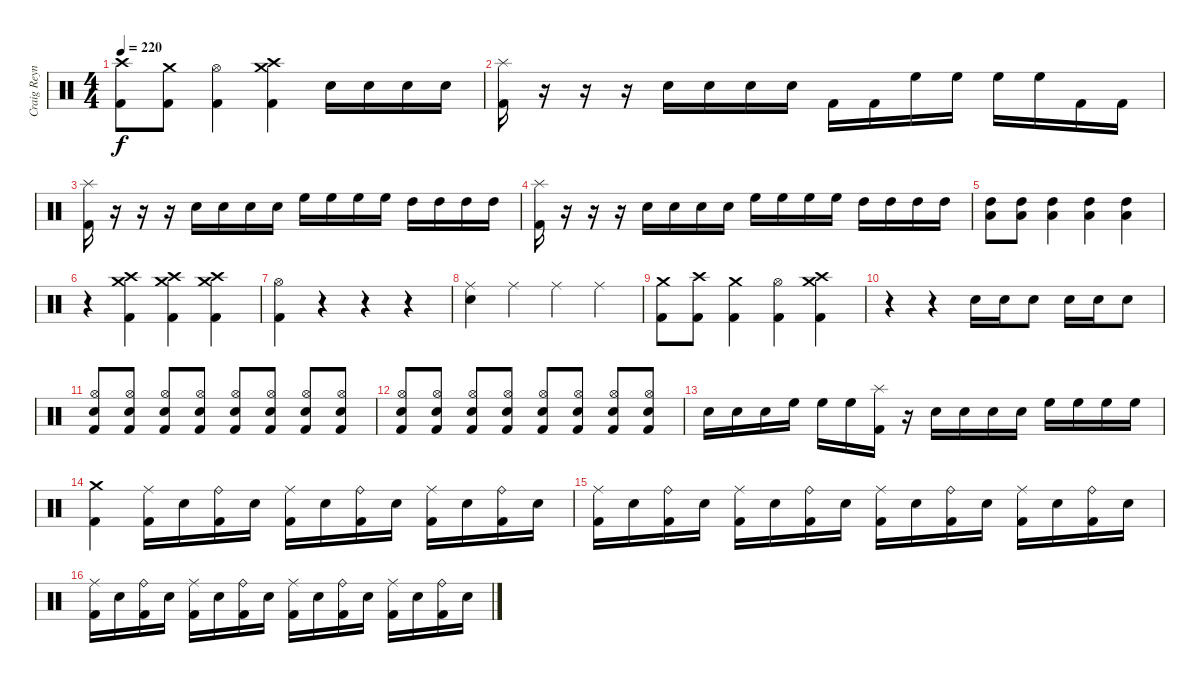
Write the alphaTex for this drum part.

\track ("Craig Reynolds" "Craig Reyn") {instrument percussion}
\staff {score}
\articulation defaults
\ts (4 4)
\tempo 220
\clef neutral
\ks c
("Crash high (hit)" "Kick (hit) 2").8{dy f} ("Crash medium (hit)" "Kick (hit) 2").8 ("Hi-Hat (open)" "Kick (hit) 2").4 ("Crash high (hit)" "Crash medium (hit)" "Kick (hit) 2").4 "Electric Snare (hit)".16 "Electric Snare (hit)".16 "Electric Snare (hit)".16 "Electric Snare (hit)".16 |
("Splash (hit)" "Kick (hit) 2").16 r.16 r.16 r.16 "Electric Snare (hit)".16 "Electric Snare (hit)".16 "Electric Snare (hit)".16 "Electric Snare (hit)".16 "Kick (hit) 2".16 "Kick (hit) 2".16 "High Floor Tom (hit)".16 "High Floor Tom (hit)".16 "High Floor Tom (hit)".16 "High Floor Tom (hit)".16 "Kick (hit) 2".16 "Kick (hit) 2".16 |
("Splash (hit)" "Kick (hit) 2").16 r.16 r.16 r.16 "Electric Snare (hit)".16 "Electric Snare (hit)".16 "Electric Snare (hit)".16 "Electric Snare (hit)".16 "High Floor Tom (hit)".16 "High Floor Tom (hit)".16 "High Floor Tom (hit)".16 "High Floor Tom (hit)".16 "High Tom (hit)".16 "High Tom (hit)".16 "High Tom (hit)".16 "High Tom (hit)".16 |
("Splash (hit)" "Kick (hit) 2").16 r.16 r.16 r.16 "Electric Snare (hit)".16 "Electric Snare (hit)".16 "Electric Snare (hit)".16 "Electric Snare (hit)".16 "High Floor Tom (hit)".16 "High Floor Tom (hit)".16 "High Floor Tom (hit)".16 "High Floor Tom (hit)".16 "High Tom (hit)".16 "High Tom (hit)".16 "High Tom (hit)".16 "High Tom (hit)".16 |
("High Tom (hit)" "Low Tom (hit)").8 ("High Tom (hit)" "Low Tom (hit)").8 ("High Tom (hit)" "Low Tom (hit)").4 ("High Tom (hit)" "Low Tom (hit)").4 ("High Tom (hit)" "Low Tom (hit)").4 |
r.4 ("Crash high (hit)" "Crash medium (hit)" "Kick (hit) 2").4 ("Crash high (hit)" "Crash medium (hit)" "Kick (hit) 2").4 ("Crash high (hit)" "Crash medium (hit)" "Kick (hit) 2").4 |
("Hi-Hat (open)" "Kick (hit) 2").4 r.4 r.4 r.4 |
("Ride (middle)" "Electric Snare (hit)").4 "Ride (middle)".4 "Ride (middle)".4 "Ride (middle)".4 |
("Crash medium (hit)" "Kick (hit) 2").8 ("Crash high (hit)" "Kick (hit) 2").8 ("Crash medium (hit)" "Kick (hit) 2").4 ("Hi-Hat (open)" "Kick (hit) 2").4 ("Crash high (hit)" "Crash medium (hit)" "Kick (hit) 2").4 |
r.4 r.4 "Electric Snare (hit)".16 "Electric Snare (hit)".16 "Electric Snare (hit)".8 "Electric Snare (hit)".16 "Electric Snare (hit)".16 "Electric Snare (hit)".8 |
("Hi-Hat (open)" "Electric Snare (hit)" "Kick (hit) 2").8 ("Hi-Hat (open)" "Electric Snare (hit)" "Kick (hit) 2").8 ("Hi-Hat (open)" "Electric Snare (hit)" "Kick (hit) 2").8 ("Hi-Hat (open)" "Electric Snare (hit)" "Kick (hit) 2").8 ("Hi-Hat (open)" "Electric Snare (hit)" "Kick (hit) 2").8 ("Hi-Hat (open)" "Electric Snare (hit)" "Kick (hit) 2").8 ("Hi-Hat (open)" "Electric Snare (hit)" "Kick (hit) 2").8 ("Hi-Hat (open)" "Electric Snare (hit)" "Kick (hit) 2").8 |
("Hi-Hat (open)" "Electric Snare (hit)" "Kick (hit) 2").8 ("Hi-Hat (open)" "Electric Snare (hit)" "Kick (hit) 2").8 ("Hi-Hat (open)" "Electric Snare (hit)" "Kick (hit) 2").8 ("Hi-Hat (open)" "Electric Snare (hit)" "Kick (hit) 2").8 ("Hi-Hat (open)" "Electric Snare (hit)" "Kick (hit) 2").8 ("Hi-Hat (open)" "Electric Snare (hit)" "Kick (hit) 2").8 ("Hi-Hat (open)" "Electric Snare (hit)" "Kick (hit) 2").8 ("Hi-Hat (open)" "Electric Snare (hit)" "Kick (hit) 2").8 |
"Electric Snare (hit)".16 "Electric Snare (hit)".16 "Electric Snare (hit)".16 "High Floor Tom (hit)".16 "High Floor Tom (hit)".16 "High Floor Tom (hit)".16 ("Splash (hit)" "Kick (hit) 2").16 r.16 "Electric Snare (hit)".16 "Electric Snare (hit)".16 "Electric Snare (hit)".16 "Electric Snare (hit)".16 "High Floor Tom (hit)".16 "High Floor Tom (hit)".16 "High Floor Tom (hit)".16 "High Floor Tom (hit)".16 |
("Crash medium (hit)" "Kick (hit) 2").4 ("Ride (middle)" "Kick (hit) 2").16 "Electric Snare (hit)".16 ("Ride (bell)" "Kick (hit) 2").16 "Electric Snare (hit)".16 ("Ride (middle)" "Kick (hit) 2").16 "Electric Snare (hit)".16 ("Ride (bell)" "Kick (hit) 2").16 "Electric Snare (hit)".16 ("Ride (middle)" "Kick (hit) 2").16 "Electric Snare (hit)".16 ("Ride (bell)" "Kick (hit) 2").16 "Electric Snare (hit)".16 |
("Ride (middle)" "Kick (hit) 2").16 "Electric Snare (hit)".16 ("Ride (bell)" "Kick (hit) 2").16 "Electric Snare (hit)".16 ("Ride (middle)" "Kick (hit) 2").16 "Electric Snare (hit)".16 ("Ride (bell)" "Kick (hit) 2").16 "Electric Snare (hit)".16 ("Ride (middle)" "Kick (hit) 2").16 "Electric Snare (hit)".16 ("Ride (bell)" "Kick (hit) 2").16 "Electric Snare (hit)".16 ("Ride (middle)" "Kick (hit) 2").16 "Electric Snare (hit)".16 ("Ride (bell)" "Kick (hit) 2").16 "Electric Snare (hit)".16 |
("Ride (middle)" "Kick (hit) 2").16 "Electric Snare (hit)".16 ("Ride (bell)" "Kick (hit) 2").16 "Electric Snare (hit)".16 ("Ride (middle)" "Kick (hit) 2").16 "Electric Snare (hit)".16 ("Ride (bell)" "Kick (hit) 2").16 "Electric Snare (hit)".16 ("Ride (middle)" "Kick (hit) 2").16 "Electric Snare (hit)".16 ("Ride (bell)" "Kick (hit) 2").16 "Electric Snare (hit)".16 ("Ride (middle)" "Kick (hit) 2").16 "Electric Snare (hit)".16 ("Ride (bell)" "Kick (hit) 2").16 "Electric Snare (hit)".16
